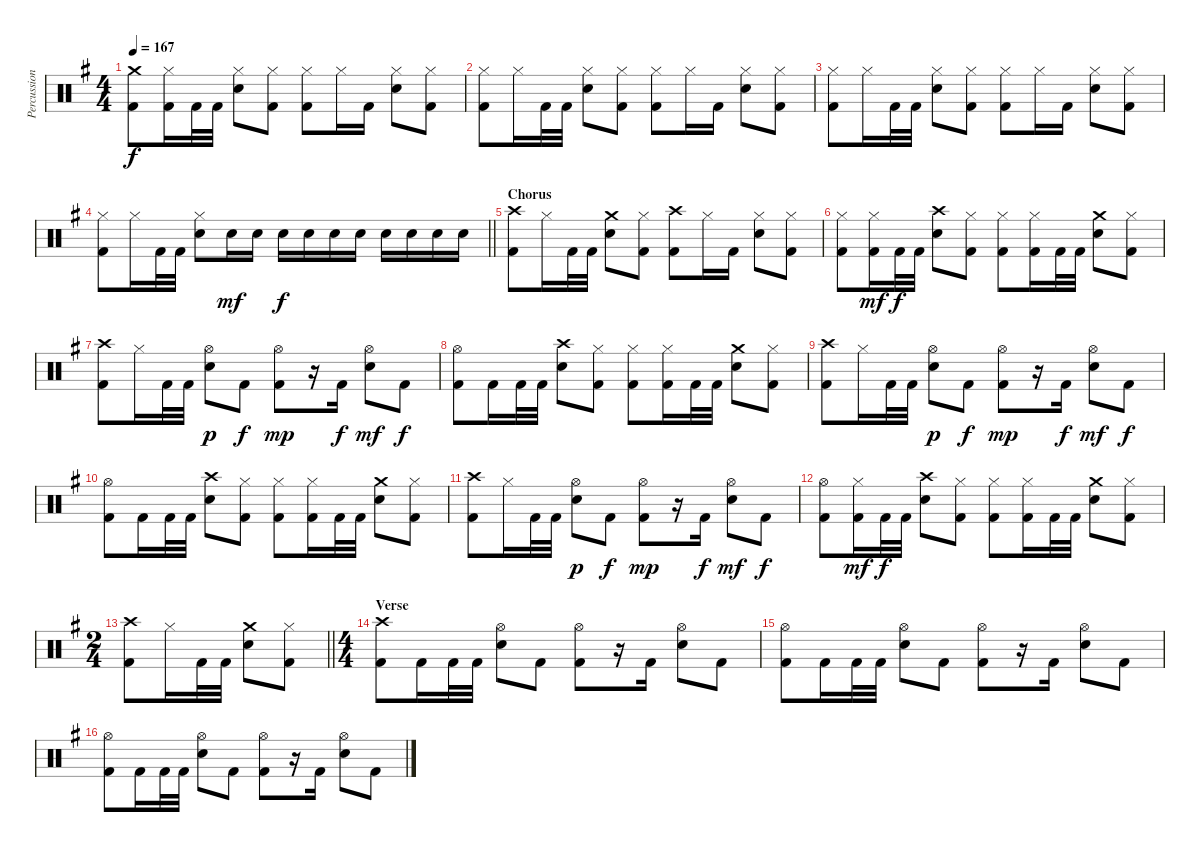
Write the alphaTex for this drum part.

\track ("Percussion" "Percussion") {instrument percussion}
\staff {score}
\articulation defaults
\ts (4 4)
\tempo 167
\clef neutral
\ks g
("Crash medium (hit)" "Kick (hit) 2").8{dy f} ("Hi-Hat (closed)" "Kick (hit) 2").16 "Kick (hit) 2".32 "Kick (hit) 2".32 ("Hi-Hat (closed)" "Snare (hit) 2").8 ("Hi-Hat (closed)" "Kick (hit) 2").8 ("Hi-Hat (closed)" "Kick (hit) 2").8 "Hi-Hat (closed)".16 "Kick (hit) 2".16 ("Hi-Hat (closed)" "Snare (hit) 2").8 ("Hi-Hat (closed)" "Kick (hit) 2").8 |
("Hi-Hat (closed)" "Kick (hit) 2").8 "Hi-Hat (closed)".16 "Kick (hit) 2".32 "Kick (hit) 2".32 ("Hi-Hat (closed)" "Snare (hit) 2").8 ("Hi-Hat (closed)" "Kick (hit) 2").8 ("Hi-Hat (closed)" "Kick (hit) 2").8 "Hi-Hat (closed)".16 "Kick (hit) 2".16 ("Hi-Hat (closed)" "Snare (hit) 2").8 ("Hi-Hat (closed)" "Kick (hit) 2").8 |
("Hi-Hat (closed)" "Kick (hit) 2").8 "Hi-Hat (closed)".16 "Kick (hit) 2".32 "Kick (hit) 2".32 ("Hi-Hat (closed)" "Snare (hit) 2").8 ("Hi-Hat (closed)" "Kick (hit) 2").8 ("Hi-Hat (closed)" "Kick (hit) 2").8 "Hi-Hat (closed)".16 "Kick (hit) 2".16 ("Hi-Hat (closed)" "Snare (hit) 2").8 ("Hi-Hat (closed)" "Kick (hit) 2").8 |
\barLineRight lightlight
("Hi-Hat (closed)" "Kick (hit) 2").8 "Hi-Hat (closed)".16 "Kick (hit) 2".32 "Kick (hit) 2".32 ("Hi-Hat (closed)" "Snare (hit) 2").8 "Snare (hit) 2".16{dy mf} "Snare (hit) 2".16 "Snare (hit) 2".16{dy f} "Snare (hit) 2".16 "Snare (hit) 2".16 "Snare (hit) 2".16 "Snare (hit) 2".16 "Snare (hit) 2".16 "Snare (hit) 2".16 "Snare (hit) 2".16 |
\section ("" "Chorus")
("Crash high (hit)" "Kick (hit) 2").8 "Hi-Hat (closed)".16 "Kick (hit) 2".32 "Kick (hit) 2".32 ("Crash medium (hit)" "Snare (hit) 2").8 ("Hi-Hat (closed)" "Kick (hit) 2").8 ("Crash high (hit)" "Kick (hit) 2").8 "Hi-Hat (closed)".16 "Kick (hit) 2".16 ("Hi-Hat (closed)" "Snare (hit) 2").8 ("Hi-Hat (closed)" "Kick (hit) 2").8 |
("Hi-Hat (closed)" "Kick (hit) 2").8 ("Hi-Hat (closed)" "Kick (hit) 2").16{dy mf} "Kick (hit) 2".32{dy f} "Kick (hit) 2".32 ("Crash high (hit)" "Snare (hit) 2").8 ("Hi-Hat (closed)" "Kick (hit) 2").8 ("Hi-Hat (closed)" "Kick (hit) 2").8 ("Hi-Hat (closed)" "Kick (hit) 2").16 "Kick (hit) 2".32 "Kick (hit) 2".32 ("Crash medium (hit)" "Snare (hit) 2").8 ("Hi-Hat (closed)" "Kick (hit) 2").8 |
("Crash high (hit)" "Kick (hit) 2").8 "Hi-Hat (closed)".16 "Kick (hit) 2".32 "Kick (hit) 2".32 ("Hi-Hat (open)" "Snare (hit) 2").8{dy p} "Kick (hit) 2".8{dy f} ("Hi-Hat (open)" "Kick (hit) 2").8{dy mp} r.16 "Kick (hit) 2".16{dy f} ("Hi-Hat (open)" "Snare (hit) 2").8{dy mf} "Kick (hit) 2".8{dy f} |
("Hi-Hat (open)" "Kick (hit) 2").8 "Kick (hit) 2".16 "Kick (hit) 2".32 "Kick (hit) 2".32 ("Crash high (hit)" "Snare (hit) 2").8 ("Hi-Hat (closed)" "Kick (hit) 2").8 ("Hi-Hat (closed)" "Kick (hit) 2").8 ("Hi-Hat (closed)" "Kick (hit) 2").16 "Kick (hit) 2".32 "Kick (hit) 2".32 ("Crash medium (hit)" "Snare (hit) 2").8 ("Hi-Hat (closed)" "Kick (hit) 2").8 |
("Crash high (hit)" "Kick (hit) 2").8 "Hi-Hat (closed)".16 "Kick (hit) 2".32 "Kick (hit) 2".32 ("Hi-Hat (open)" "Snare (hit) 2").8{dy p} "Kick (hit) 2".8{dy f} ("Hi-Hat (open)" "Kick (hit) 2").8{dy mp} r.16 "Kick (hit) 2".16{dy f} ("Hi-Hat (open)" "Snare (hit) 2").8{dy mf} "Kick (hit) 2".8{dy f} |
("Hi-Hat (open)" "Kick (hit) 2").8 "Kick (hit) 2".16 "Kick (hit) 2".32 "Kick (hit) 2".32 ("Crash high (hit)" "Snare (hit) 2").8 ("Hi-Hat (closed)" "Kick (hit) 2").8 ("Hi-Hat (closed)" "Kick (hit) 2").8 ("Hi-Hat (closed)" "Kick (hit) 2").16 "Kick (hit) 2".32 "Kick (hit) 2".32 ("Crash medium (hit)" "Snare (hit) 2").8 ("Hi-Hat (closed)" "Kick (hit) 2").8 |
("Crash high (hit)" "Kick (hit) 2").8 "Hi-Hat (closed)".16 "Kick (hit) 2".32 "Kick (hit) 2".32 ("Hi-Hat (open)" "Snare (hit) 2").8{dy p} "Kick (hit) 2".8{dy f} ("Hi-Hat (open)" "Kick (hit) 2").8{dy mp} r.16 "Kick (hit) 2".16{dy f} ("Hi-Hat (open)" "Snare (hit) 2").8{dy mf} "Kick (hit) 2".8{dy f} |
("Hi-Hat (open)" "Kick (hit) 2").8 ("Hi-Hat (closed)" "Kick (hit) 2").16{dy mf} "Kick (hit) 2".32{dy f} "Kick (hit) 2".32 ("Crash high (hit)" "Snare (hit) 2").8 ("Hi-Hat (closed)" "Kick (hit) 2").8 ("Hi-Hat (closed)" "Kick (hit) 2").8 ("Hi-Hat (closed)" "Kick (hit) 2").16 "Kick (hit) 2".32 "Kick (hit) 2".32 ("Crash medium (hit)" "Snare (hit) 2").8 ("Hi-Hat (closed)" "Kick (hit) 2").8 |
\ts (2 4)
\barLineRight lightlight
("Crash high (hit)" "Kick (hit) 2").8 "Hi-Hat (closed)".16 "Kick (hit) 2".32 "Kick (hit) 2".32 ("Crash medium (hit)" "Snare (hit) 2").8 ("Hi-Hat (closed)" "Kick (hit) 2").8 |
\ts (4 4)
\section ("" "Verse")
("Crash high (hit)" "Kick (hit) 2").8 "Kick (hit) 2".16 "Kick (hit) 2".32 "Kick (hit) 2".32 ("Hi-Hat (open)" "Snare (hit) 2").8 "Kick (hit) 2".8 ("Hi-Hat (open)" "Kick (hit) 2").8 r.16 "Kick (hit) 2".16 ("Hi-Hat (open)" "Snare (hit) 2").8 "Kick (hit) 2".8 |
("Hi-Hat (open)" "Kick (hit) 2").8 "Kick (hit) 2".16 "Kick (hit) 2".32 "Kick (hit) 2".32 ("Hi-Hat (open)" "Snare (hit) 2").8 "Kick (hit) 2".8 ("Hi-Hat (open)" "Kick (hit) 2").8 r.16 "Kick (hit) 2".16 ("Hi-Hat (open)" "Snare (hit) 2").8 "Kick (hit) 2".8 |
("Hi-Hat (open)" "Kick (hit) 2").8 "Kick (hit) 2".16 "Kick (hit) 2".32 "Kick (hit) 2".32 ("Hi-Hat (open)" "Snare (hit) 2").8 "Kick (hit) 2".8 ("Hi-Hat (open)" "Kick (hit) 2").8 r.16 "Kick (hit) 2".16 ("Hi-Hat (open)" "Snare (hit) 2").8 "Kick (hit) 2".8
